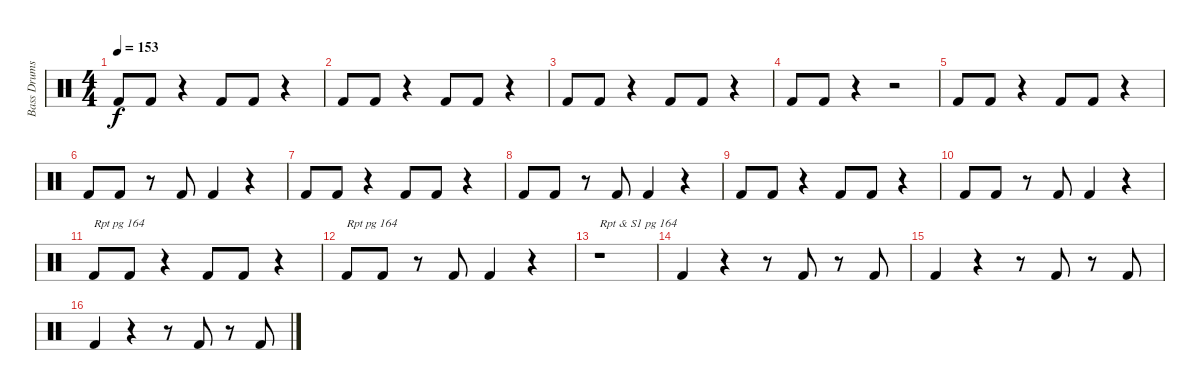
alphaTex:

\track ("Bass Drums" "Bass Drums") {instrument percussion}
\staff {score}
\articulation defaults
\ts (4 4)
\tempo 153
\clef neutral
\ks c "Kick (hit) 2".8{dy f} "Kick (hit) 2".8
r.4 "Kick (hit) 2".8 "Kick (hit) 2".8 r.4 |
"Kick (hit) 2".8 "Kick (hit) 2".8 r.4 "Kick (hit) 2".8 "Kick (hit) 2".8 r.4 |
"Kick (hit) 2".8 "Kick (hit) 2".8 r.4 "Kick (hit) 2".8 "Kick (hit) 2".8 r.4 |
"Kick (hit) 2".8 "Kick (hit) 2".8 r.4 r.2 |
"Kick (hit) 2".8 "Kick (hit) 2".8 r.4 "Kick (hit) 2".8 "Kick (hit) 2".8 r.4 |
"Kick (hit) 2".8 "Kick (hit) 2".8 r.8 "Kick (hit) 2".8 "Kick (hit) 2".4 r.4 |
"Kick (hit) 2".8 "Kick (hit) 2".8 r.4 "Kick (hit) 2".8 "Kick (hit) 2".8 r.4 |
"Kick (hit) 2".8 "Kick (hit) 2".8 r.8 "Kick (hit) 2".8 "Kick (hit) 2".4 r.4 |
"Kick (hit) 2".8 "Kick (hit) 2".8 r.4 "Kick (hit) 2".8 "Kick (hit) 2".8 r.4 |
"Kick (hit) 2".8 "Kick (hit) 2".8 r.8 "Kick (hit) 2".8 "Kick (hit) 2".4 r.4 |
"Kick (hit) 2".8{txt "Rpt pg 164"} "Kick (hit) 2".8 r.4 "Kick (hit) 2".8 "Kick (hit) 2".8 r.4 |
"Kick (hit) 2".8{txt "Rpt pg 164"} "Kick (hit) 2".8 r.8 "Kick (hit) 2".8 "Kick (hit) 2".4 r.4 |
r.1{txt "Rpt & S1 pg 164"} |
"Kick (hit) 2".4 r.4 r.8 "Kick (hit) 2".8 r.8 "Kick (hit) 2".8 |
"Kick (hit) 2".4 r.4 r.8 "Kick (hit) 2".8 r.8 "Kick (hit) 2".8 |
"Kick (hit) 2".4 r.4 r.8 "Kick (hit) 2".8 r.8 "Kick (hit) 2".8
